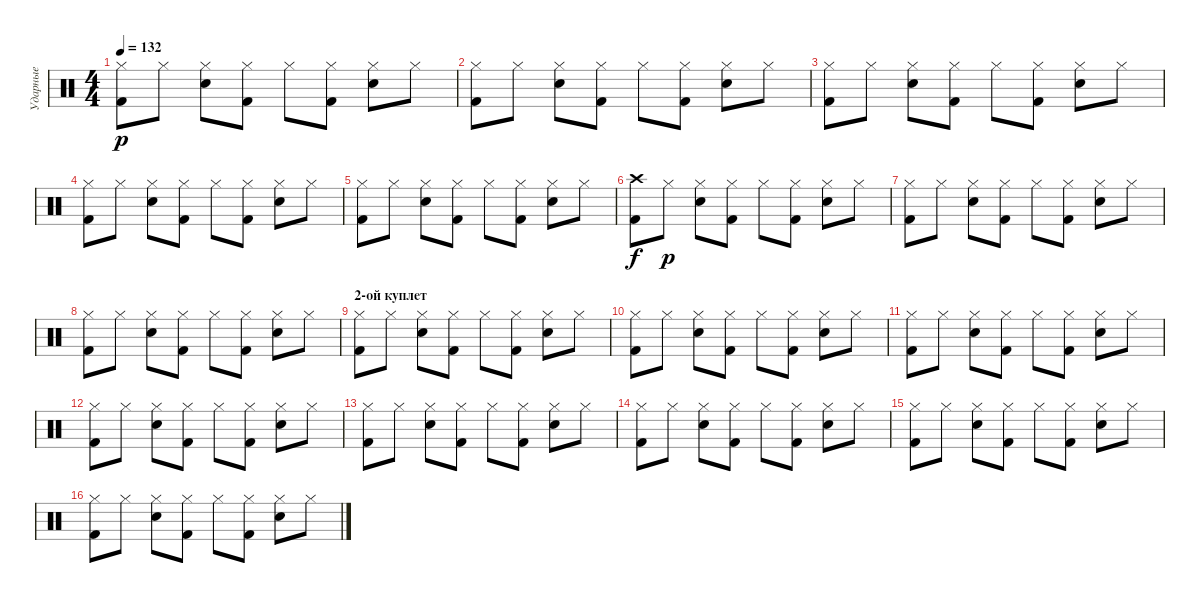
\track ("Ударные" "Ударные") {instrument percussion}
\staff {score}
\articulation defaults
\ts (4 4)
\tempo 132
\clef neutral
\ks c
("Hi-Hat (closed)" "Kick (hit) 2").8{dy p} "Hi-Hat (closed)".8 ("Hi-Hat (closed)" "Snare (hit) 2").8 ("Hi-Hat (closed)" "Kick (hit) 2").8 "Hi-Hat (closed)".8 ("Hi-Hat (closed)" "Kick (hit) 2").8 ("Hi-Hat (closed)" "Snare (hit) 2").8 "Hi-Hat (closed)".8 |
("Hi-Hat (closed)" "Kick (hit) 2").8 "Hi-Hat (closed)".8 ("Hi-Hat (closed)" "Snare (hit) 2").8 ("Hi-Hat (closed)" "Kick (hit) 2").8 "Hi-Hat (closed)".8 ("Hi-Hat (closed)" "Kick (hit) 2").8 ("Hi-Hat (closed)" "Snare (hit) 2").8 "Hi-Hat (closed)".8 |
("Hi-Hat (closed)" "Kick (hit) 2").8 "Hi-Hat (closed)".8 ("Hi-Hat (closed)" "Snare (hit) 2").8 ("Hi-Hat (closed)" "Kick (hit) 2").8 "Hi-Hat (closed)".8 ("Hi-Hat (closed)" "Kick (hit) 2").8 ("Hi-Hat (closed)" "Snare (hit) 2").8 "Hi-Hat (closed)".8 |
("Hi-Hat (closed)" "Kick (hit) 2").8 "Hi-Hat (closed)".8 ("Hi-Hat (closed)" "Snare (hit) 2").8 ("Hi-Hat (closed)" "Kick (hit) 2").8 "Hi-Hat (closed)".8 ("Hi-Hat (closed)" "Kick (hit) 2").8 ("Hi-Hat (closed)" "Snare (hit) 2").8 "Hi-Hat (closed)".8 |
("Hi-Hat (closed)" "Kick (hit) 2").8 "Hi-Hat (closed)".8 ("Hi-Hat (closed)" "Snare (hit) 2").8 ("Hi-Hat (closed)" "Kick (hit) 2").8 "Hi-Hat (closed)".8 ("Hi-Hat (closed)" "Kick (hit) 2").8 ("Hi-Hat (closed)" "Snare (hit) 2").8 "Hi-Hat (closed)".8 |
("Crash high (hit)" "Kick (hit) 2").8{dy f} "Hi-Hat (closed)".8{dy p} ("Hi-Hat (closed)" "Snare (hit) 2").8 ("Hi-Hat (closed)" "Kick (hit) 2").8 "Hi-Hat (closed)".8 ("Hi-Hat (closed)" "Kick (hit) 2").8 ("Hi-Hat (closed)" "Snare (hit) 2").8 "Hi-Hat (closed)".8 |
("Hi-Hat (closed)" "Kick (hit) 2").8 "Hi-Hat (closed)".8 ("Hi-Hat (closed)" "Snare (hit) 2").8 ("Hi-Hat (closed)" "Kick (hit) 2").8 "Hi-Hat (closed)".8 ("Hi-Hat (closed)" "Kick (hit) 2").8 ("Hi-Hat (closed)" "Snare (hit) 2").8 "Hi-Hat (closed)".8 |
("Hi-Hat (closed)" "Kick (hit) 2").8 "Hi-Hat (closed)".8 ("Hi-Hat (closed)" "Snare (hit) 2").8 ("Hi-Hat (closed)" "Kick (hit) 2").8 "Hi-Hat (closed)".8 ("Hi-Hat (closed)" "Kick (hit) 2").8 ("Hi-Hat (closed)" "Snare (hit) 2").8 "Hi-Hat (closed)".8 |
\section ("" "2-ой куплет")
("Hi-Hat (closed)" "Kick (hit) 2").8 "Hi-Hat (closed)".8 ("Hi-Hat (closed)" "Snare (hit) 2").8 ("Hi-Hat (closed)" "Kick (hit) 2").8 "Hi-Hat (closed)".8 ("Hi-Hat (closed)" "Kick (hit) 2").8 ("Hi-Hat (closed)" "Snare (hit) 2").8 "Hi-Hat (closed)".8 |
("Hi-Hat (closed)" "Kick (hit) 2").8 "Hi-Hat (closed)".8 ("Hi-Hat (closed)" "Snare (hit) 2").8 ("Hi-Hat (closed)" "Kick (hit) 2").8 "Hi-Hat (closed)".8 ("Hi-Hat (closed)" "Kick (hit) 2").8 ("Hi-Hat (closed)" "Snare (hit) 2").8 "Hi-Hat (closed)".8 |
("Hi-Hat (closed)" "Kick (hit) 2").8 "Hi-Hat (closed)".8 ("Hi-Hat (closed)" "Snare (hit) 2").8 ("Hi-Hat (closed)" "Kick (hit) 2").8 "Hi-Hat (closed)".8 ("Hi-Hat (closed)" "Kick (hit) 2").8 ("Hi-Hat (closed)" "Snare (hit) 2").8 "Hi-Hat (closed)".8 |
("Hi-Hat (closed)" "Kick (hit) 2").8 "Hi-Hat (closed)".8 ("Hi-Hat (closed)" "Snare (hit) 2").8 ("Hi-Hat (closed)" "Kick (hit) 2").8 "Hi-Hat (closed)".8 ("Hi-Hat (closed)" "Kick (hit) 2").8 ("Hi-Hat (closed)" "Snare (hit) 2").8 "Hi-Hat (closed)".8 |
("Hi-Hat (closed)" "Kick (hit) 2").8 "Hi-Hat (closed)".8 ("Hi-Hat (closed)" "Snare (hit) 2").8 ("Hi-Hat (closed)" "Kick (hit) 2").8 "Hi-Hat (closed)".8 ("Hi-Hat (closed)" "Kick (hit) 2").8 ("Hi-Hat (closed)" "Snare (hit) 2").8 "Hi-Hat (closed)".8 |
("Hi-Hat (closed)" "Kick (hit) 2").8 "Hi-Hat (closed)".8 ("Hi-Hat (closed)" "Snare (hit) 2").8 ("Hi-Hat (closed)" "Kick (hit) 2").8 "Hi-Hat (closed)".8 ("Hi-Hat (closed)" "Kick (hit) 2").8 ("Hi-Hat (closed)" "Snare (hit) 2").8 "Hi-Hat (closed)".8 |
("Hi-Hat (closed)" "Kick (hit) 2").8 "Hi-Hat (closed)".8 ("Hi-Hat (closed)" "Snare (hit) 2").8 ("Hi-Hat (closed)" "Kick (hit) 2").8 "Hi-Hat (closed)".8 ("Hi-Hat (closed)" "Kick (hit) 2").8 ("Hi-Hat (closed)" "Snare (hit) 2").8 "Hi-Hat (closed)".8 |
("Hi-Hat (closed)" "Kick (hit) 2").8 "Hi-Hat (closed)".8 ("Hi-Hat (closed)" "Snare (hit) 2").8 ("Hi-Hat (closed)" "Kick (hit) 2").8 "Hi-Hat (closed)".8 ("Hi-Hat (closed)" "Kick (hit) 2").8 ("Hi-Hat (closed)" "Snare (hit) 2").8 "Hi-Hat (closed)".8
